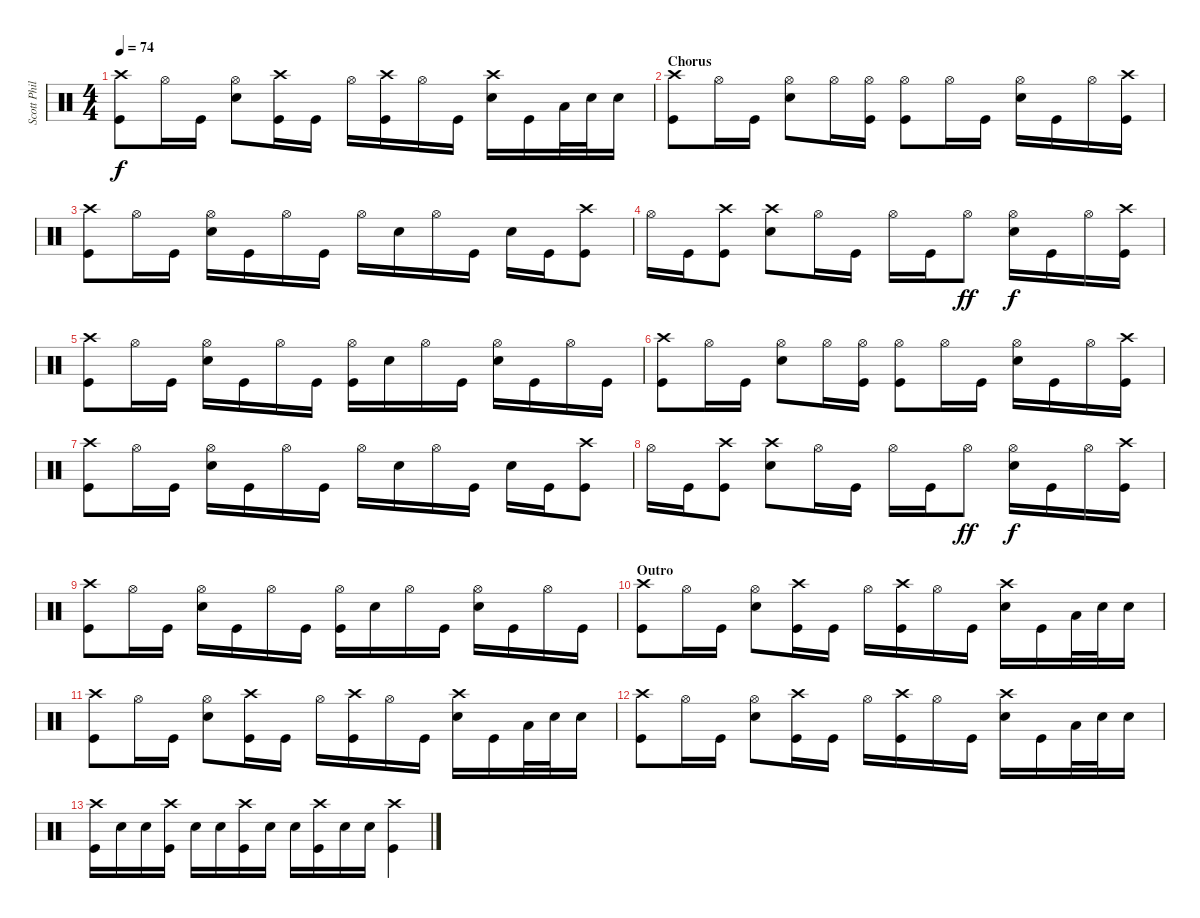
\track ("Scott Phillips" "Scott Phil") {instrument percussion}
\staff {score}
\articulation defaults
\ts (4 4)
\tempo 74
\clef neutral
\ks c
("Crash high (hit)" "Kick (hit)").8{dy f} "Hi-Hat (open)".16 "Kick (hit)".16 ("Hi-Hat (open)" "Snare (hit) 2").8 ("Crash high (hit)" "Kick (hit)").16 "Kick (hit)".16 "Hi-Hat (open)".16 ("Crash high (hit)" "Kick (hit)").16 "Hi-Hat (open)".16 "Kick (hit)".16 ("Crash high (hit)" "Snare (hit) 2").16 "Kick (hit)".16 "Low Tom (hit)".32 "Snare (hit) 2".32 "Snare (hit) 2".16 |
\section ("" "Chorus")
("Crash high (hit)" "Kick (hit)").8 "Hi-Hat (open)".16 "Kick (hit)".16 ("Hi-Hat (open)" "Snare (hit) 2").8 "Hi-Hat (open)".16 ("Hi-Hat (open)" "Kick (hit)").16 ("Hi-Hat (open)" "Kick (hit)").8 "Hi-Hat (open)".16 "Kick (hit)".16 ("Hi-Hat (open)" "Snare (hit) 2").16 "Kick (hit)".16 "Hi-Hat (open)".16 ("Crash high (hit)" "Kick (hit)").16 |
("Crash high (hit)" "Kick (hit)").8 "Hi-Hat (open)".16 "Kick (hit)".16 ("Hi-Hat (open)" "Snare (hit) 2").16 "Kick (hit)".16 "Hi-Hat (open)".16 "Kick (hit)".16 "Hi-Hat (open)".16 "Snare (hit) 2".16 "Hi-Hat (open)".16 "Kick (hit)".16 "Snare (hit) 2".16 "Kick (hit)".16 ("Crash high (hit)" "Kick (hit)").8 |
"Hi-Hat (open)".16 "Kick (hit)".16 ("Crash high (hit)" "Kick (hit)").8 ("Crash high (hit)" "Snare (hit) 2").8 "Hi-Hat (open)".16 "Kick (hit)".16 "Hi-Hat (open)".16 "Kick (hit)".16 "Hi-Hat (open)".8{dy ff} ("Hi-Hat (open)" "Snare (hit) 2").16{dy f} "Kick (hit)".16 "Hi-Hat (open)".16 ("Crash high (hit)" "Kick (hit)").16 |
("Crash high (hit)" "Kick (hit)").8 "Hi-Hat (open)".16 "Kick (hit)".16 ("Hi-Hat (open)" "Snare (hit) 2").16 "Kick (hit)".16 "Hi-Hat (open)".16 "Kick (hit)".16 ("Hi-Hat (open)" "Kick (hit)").16 "Snare (hit) 2".16 "Hi-Hat (open)".16 "Kick (hit)".16 ("Hi-Hat (open)" "Snare (hit) 2").16 "Kick (hit)".16 "Hi-Hat (open)".16 "Kick (hit)".16 |
("Crash high (hit)" "Kick (hit)").8 "Hi-Hat (open)".16 "Kick (hit)".16 ("Hi-Hat (open)" "Snare (hit) 2").8 "Hi-Hat (open)".16 ("Hi-Hat (open)" "Kick (hit)").16 ("Hi-Hat (open)" "Kick (hit)").8 "Hi-Hat (open)".16 "Kick (hit)".16 ("Hi-Hat (open)" "Snare (hit) 2").16 "Kick (hit)".16 "Hi-Hat (open)".16 ("Crash high (hit)" "Kick (hit)").16 |
("Crash high (hit)" "Kick (hit)").8 "Hi-Hat (open)".16 "Kick (hit)".16 ("Hi-Hat (open)" "Snare (hit) 2").16 "Kick (hit)".16 "Hi-Hat (open)".16 "Kick (hit)".16 "Hi-Hat (open)".16 "Snare (hit) 2".16 "Hi-Hat (open)".16 "Kick (hit)".16 "Snare (hit) 2".16 "Kick (hit)".16 ("Crash high (hit)" "Kick (hit)").8 |
"Hi-Hat (open)".16 "Kick (hit)".16 ("Crash high (hit)" "Kick (hit)").8 ("Crash high (hit)" "Snare (hit) 2").8 "Hi-Hat (open)".16 "Kick (hit)".16 "Hi-Hat (open)".16 "Kick (hit)".16 "Hi-Hat (open)".8{dy ff} ("Hi-Hat (open)" "Snare (hit) 2").16{dy f} "Kick (hit)".16 "Hi-Hat (open)".16 ("Crash high (hit)" "Kick (hit)").16 |
("Crash high (hit)" "Kick (hit)").8 "Hi-Hat (open)".16 "Kick (hit)".16 ("Hi-Hat (open)" "Snare (hit) 2").16 "Kick (hit)".16 "Hi-Hat (open)".16 "Kick (hit)".16 ("Hi-Hat (open)" "Kick (hit)").16 "Snare (hit) 2".16 "Hi-Hat (open)".16 "Kick (hit)".16 ("Hi-Hat (open)" "Snare (hit) 2").16 "Kick (hit)".16 "Hi-Hat (open)".16 "Kick (hit)".16 |
\section ("" "Outro")
("Crash high (hit)" "Kick (hit)").8 "Hi-Hat (open)".16 "Kick (hit)".16 ("Hi-Hat (open)" "Snare (hit) 2").8 ("Crash high (hit)" "Kick (hit)").16 "Kick (hit)".16 "Hi-Hat (open)".16 ("Crash high (hit)" "Kick (hit)").16 "Hi-Hat (open)".16 "Kick (hit)".16 ("Crash high (hit)" "Snare (hit) 2").16 "Kick (hit)".16 "Low Tom (hit)".32 "Snare (hit) 2".32 "Snare (hit) 2".16 |
("Crash high (hit)" "Kick (hit)").8 "Hi-Hat (open)".16 "Kick (hit)".16 ("Hi-Hat (open)" "Snare (hit) 2").8 ("Crash high (hit)" "Kick (hit)").16 "Kick (hit)".16 "Hi-Hat (open)".16 ("Crash high (hit)" "Kick (hit)").16 "Hi-Hat (open)".16 "Kick (hit)".16 ("Crash high (hit)" "Snare (hit) 2").16 "Kick (hit)".16 "Low Tom (hit)".32 "Snare (hit) 2".32 "Snare (hit) 2".16 |
("Crash high (hit)" "Kick (hit)").8 "Hi-Hat (open)".16 "Kick (hit)".16 ("Hi-Hat (open)" "Snare (hit) 2").8 ("Crash high (hit)" "Kick (hit)").16 "Kick (hit)".16 "Hi-Hat (open)".16 ("Crash high (hit)" "Kick (hit)").16 "Hi-Hat (open)".16 "Kick (hit)".16 ("Crash high (hit)" "Snare (hit) 2").16 "Kick (hit)".16 "Low Tom (hit)".32 "Snare (hit) 2".32 "Snare (hit) 2".16 |
("Crash high (hit)" "Kick (hit)").16 "Snare (hit) 2".16 "Snare (hit) 2".16 ("Crash high (hit)" "Kick (hit)").16 "Snare (hit) 2".16 "Snare (hit) 2".16 ("Crash high (hit)" "Kick (hit)").16 "Snare (hit) 2".16 "Snare (hit) 2".16 ("Crash high (hit)" "Kick (hit)").16 "Snare (hit) 2".16 "Snare (hit) 2".16 ("Crash high (hit)" "Kick (hit)").4
